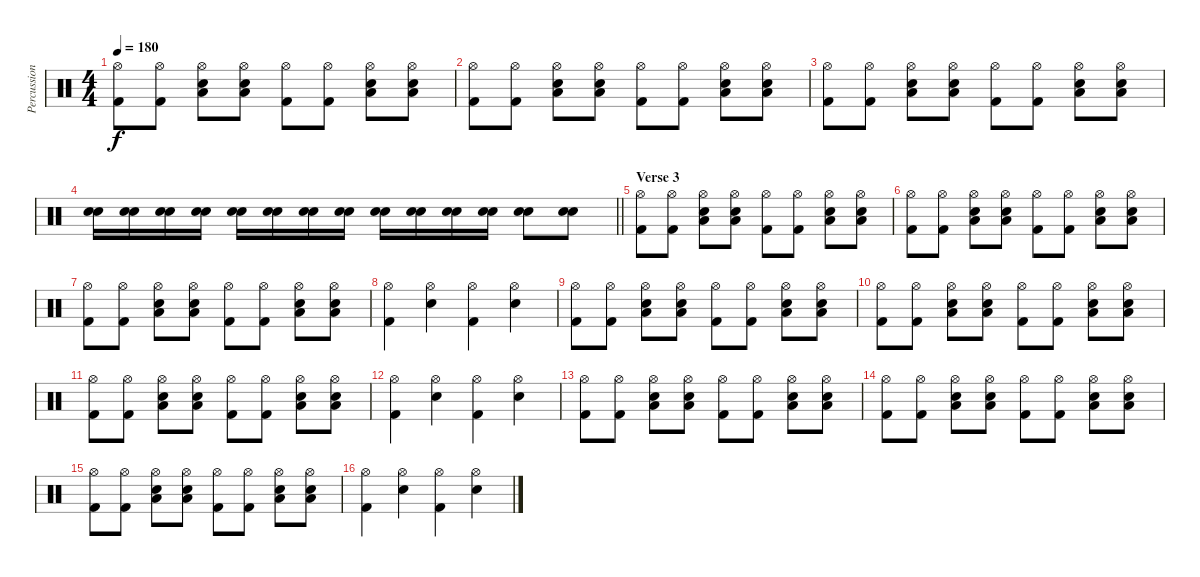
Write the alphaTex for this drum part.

\track ("Percussioni" "Percussion") {instrument percussion}
\staff {score}
\articulation defaults
\ts (4 4)
\tempo 180
\clef neutral
\ks c
("Hi-Hat (open)" "Kick (hit) 2").8{dy f} ("Hi-Hat (open)" "Kick (hit) 2").8 ("Hi-Hat (open)" "Electric Snare (hit)" "Low Floor Tom (hit)").8 ("Hi-Hat (open)" "Electric Snare (hit)" "Low Floor Tom (hit)").8 ("Hi-Hat (open)" "Kick (hit) 2").8 ("Hi-Hat (open)" "Kick (hit) 2").8 ("Hi-Hat (open)" "Electric Snare (hit)" "Low Floor Tom (hit)").8 ("Hi-Hat (open)" "Electric Snare (hit)" "Low Floor Tom (hit)").8 |
("Hi-Hat (open)" "Kick (hit) 2").8 ("Hi-Hat (open)" "Kick (hit) 2").8 ("Hi-Hat (open)" "Electric Snare (hit)" "Low Floor Tom (hit)").8 ("Hi-Hat (open)" "Electric Snare (hit)" "Low Floor Tom (hit)").8 ("Hi-Hat (open)" "Kick (hit) 2").8 ("Hi-Hat (open)" "Kick (hit) 2").8 ("Hi-Hat (open)" "Electric Snare (hit)" "Low Floor Tom (hit)").8 ("Hi-Hat (open)" "Electric Snare (hit)" "Low Floor Tom (hit)").8 |
("Hi-Hat (open)" "Kick (hit) 2").8 ("Hi-Hat (open)" "Kick (hit) 2").8 ("Hi-Hat (open)" "Electric Snare (hit)" "Low Floor Tom (hit)").8 ("Hi-Hat (open)" "Electric Snare (hit)" "Low Floor Tom (hit)").8 ("Hi-Hat (open)" "Kick (hit) 2").8 ("Hi-Hat (open)" "Kick (hit) 2").8 ("Hi-Hat (open)" "Electric Snare (hit)" "Low Floor Tom (hit)").8 ("Hi-Hat (open)" "Electric Snare (hit)" "Low Floor Tom (hit)").8 |
\barLineRight lightlight
("Electric Snare (hit)" "Electric Snare (hit)").16 ("Electric Snare (hit)" "Electric Snare (hit)").16 ("Electric Snare (hit)" "Electric Snare (hit)").16 ("Electric Snare (hit)" "Electric Snare (hit)").16 ("Electric Snare (hit)" "Electric Snare (hit)").16 ("Electric Snare (hit)" "Electric Snare (hit)").16 ("Electric Snare (hit)" "Electric Snare (hit)").16 ("Electric Snare (hit)" "Electric Snare (hit)").16 ("Electric Snare (hit)" "Electric Snare (hit)").16 ("Electric Snare (hit)" "Electric Snare (hit)").16 ("Electric Snare (hit)" "Electric Snare (hit)").16 ("Electric Snare (hit)" "Electric Snare (hit)").16 ("Electric Snare (hit)" "Electric Snare (hit)").8 ("Electric Snare (hit)" "Electric Snare (hit)").8 |
\section ("" "Verse 3")
("Hi-Hat (open)" "Kick (hit) 2").8 ("Hi-Hat (open)" "Kick (hit) 2").8 ("Hi-Hat (open)" "Electric Snare (hit)" "Low Floor Tom (hit)").8 ("Hi-Hat (open)" "Electric Snare (hit)" "Low Floor Tom (hit)").8 ("Hi-Hat (open)" "Kick (hit) 2").8 ("Hi-Hat (open)" "Kick (hit) 2").8 ("Hi-Hat (open)" "Electric Snare (hit)" "Low Floor Tom (hit)").8 ("Hi-Hat (open)" "Electric Snare (hit)" "Low Floor Tom (hit)").8 |
("Hi-Hat (open)" "Kick (hit) 2").8 ("Hi-Hat (open)" "Kick (hit) 2").8 ("Hi-Hat (open)" "Electric Snare (hit)" "Low Floor Tom (hit)").8 ("Hi-Hat (open)" "Electric Snare (hit)" "Low Floor Tom (hit)").8 ("Hi-Hat (open)" "Kick (hit) 2").8 ("Hi-Hat (open)" "Kick (hit) 2").8 ("Hi-Hat (open)" "Electric Snare (hit)" "Low Floor Tom (hit)").8 ("Hi-Hat (open)" "Electric Snare (hit)" "Low Floor Tom (hit)").8 |
("Hi-Hat (open)" "Kick (hit) 2").8 ("Hi-Hat (open)" "Kick (hit) 2").8 ("Hi-Hat (open)" "Electric Snare (hit)" "Low Floor Tom (hit)").8 ("Hi-Hat (open)" "Electric Snare (hit)" "Low Floor Tom (hit)").8 ("Hi-Hat (open)" "Kick (hit) 2").8 ("Hi-Hat (open)" "Kick (hit) 2").8 ("Hi-Hat (open)" "Electric Snare (hit)" "Low Floor Tom (hit)").8 ("Hi-Hat (open)" "Electric Snare (hit)" "Low Floor Tom (hit)").8 |
("Hi-Hat (open)" "Kick (hit) 2").4 ("Hi-Hat (open)" "Electric Snare (hit)").4 ("Hi-Hat (open)" "Kick (hit) 2").4 ("Hi-Hat (open)" "Electric Snare (hit)").4 |
("Hi-Hat (open)" "Kick (hit) 2").8 ("Hi-Hat (open)" "Kick (hit) 2").8 ("Hi-Hat (open)" "Electric Snare (hit)" "Low Floor Tom (hit)").8 ("Hi-Hat (open)" "Electric Snare (hit)" "Low Floor Tom (hit)").8 ("Hi-Hat (open)" "Kick (hit) 2").8 ("Hi-Hat (open)" "Kick (hit) 2").8 ("Hi-Hat (open)" "Electric Snare (hit)" "Low Floor Tom (hit)").8 ("Hi-Hat (open)" "Electric Snare (hit)" "Low Floor Tom (hit)").8 |
("Hi-Hat (open)" "Kick (hit) 2").8 ("Hi-Hat (open)" "Kick (hit) 2").8 ("Hi-Hat (open)" "Electric Snare (hit)" "Low Floor Tom (hit)").8 ("Hi-Hat (open)" "Electric Snare (hit)" "Low Floor Tom (hit)").8 ("Hi-Hat (open)" "Kick (hit) 2").8 ("Hi-Hat (open)" "Kick (hit) 2").8 ("Hi-Hat (open)" "Electric Snare (hit)" "Low Floor Tom (hit)").8 ("Hi-Hat (open)" "Electric Snare (hit)" "Low Floor Tom (hit)").8 |
("Hi-Hat (open)" "Kick (hit) 2").8 ("Hi-Hat (open)" "Kick (hit) 2").8 ("Hi-Hat (open)" "Electric Snare (hit)" "Low Floor Tom (hit)").8 ("Hi-Hat (open)" "Electric Snare (hit)" "Low Floor Tom (hit)").8 ("Hi-Hat (open)" "Kick (hit) 2").8 ("Hi-Hat (open)" "Kick (hit) 2").8 ("Hi-Hat (open)" "Electric Snare (hit)" "Low Floor Tom (hit)").8 ("Hi-Hat (open)" "Electric Snare (hit)" "Low Floor Tom (hit)").8 |
("Hi-Hat (open)" "Kick (hit) 2").4 ("Hi-Hat (open)" "Electric Snare (hit)").4 ("Hi-Hat (open)" "Kick (hit) 2").4 ("Hi-Hat (open)" "Electric Snare (hit)").4 |
("Hi-Hat (open)" "Kick (hit) 2").8 ("Hi-Hat (open)" "Kick (hit) 2").8 ("Hi-Hat (open)" "Electric Snare (hit)" "Low Floor Tom (hit)").8 ("Hi-Hat (open)" "Electric Snare (hit)" "Low Floor Tom (hit)").8 ("Hi-Hat (open)" "Kick (hit) 2").8 ("Hi-Hat (open)" "Kick (hit) 2").8 ("Hi-Hat (open)" "Electric Snare (hit)" "Low Floor Tom (hit)").8 ("Hi-Hat (open)" "Electric Snare (hit)" "Low Floor Tom (hit)").8 |
("Hi-Hat (open)" "Kick (hit) 2").8 ("Hi-Hat (open)" "Kick (hit) 2").8 ("Hi-Hat (open)" "Electric Snare (hit)" "Low Floor Tom (hit)").8 ("Hi-Hat (open)" "Electric Snare (hit)" "Low Floor Tom (hit)").8 ("Hi-Hat (open)" "Kick (hit) 2").8 ("Hi-Hat (open)" "Kick (hit) 2").8 ("Hi-Hat (open)" "Electric Snare (hit)" "Low Floor Tom (hit)").8 ("Hi-Hat (open)" "Electric Snare (hit)" "Low Floor Tom (hit)").8 |
("Hi-Hat (open)" "Kick (hit) 2").8 ("Hi-Hat (open)" "Kick (hit) 2").8 ("Hi-Hat (open)" "Electric Snare (hit)" "Low Floor Tom (hit)").8 ("Hi-Hat (open)" "Electric Snare (hit)" "Low Floor Tom (hit)").8 ("Hi-Hat (open)" "Kick (hit) 2").8 ("Hi-Hat (open)" "Kick (hit) 2").8 ("Hi-Hat (open)" "Electric Snare (hit)" "Low Floor Tom (hit)").8 ("Hi-Hat (open)" "Electric Snare (hit)" "Low Floor Tom (hit)").8 |
("Hi-Hat (open)" "Kick (hit) 2").4 ("Hi-Hat (open)" "Electric Snare (hit)").4 ("Hi-Hat (open)" "Kick (hit) 2").4 ("Hi-Hat (open)" "Electric Snare (hit)").4
